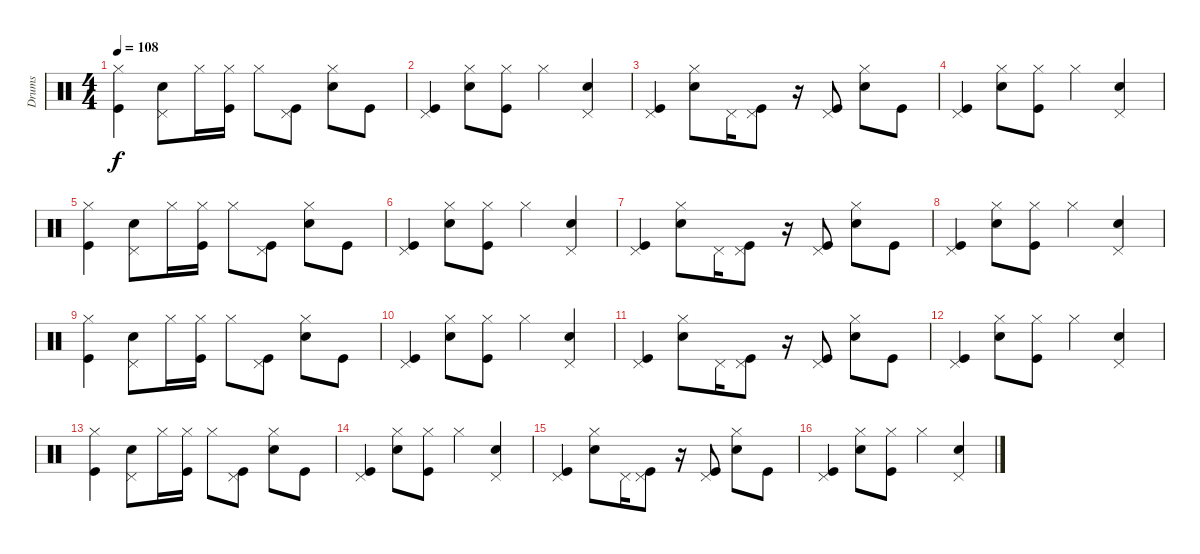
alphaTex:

\track ("Drums" "Drums") {instrument percussion}
\staff {score}
\articulation defaults
\ts (4 4)
\tempo 108
\clef neutral
\ks c
("Hi-Hat (closed)" "Kick (hit)").4{dy f} ("Pedal Hi-Hat (hit)" "Snare (hit) 2").8 "Hi-Hat (closed)".16 ("Hi-Hat (closed)" "Kick (hit)").16 "Hi-Hat (closed)".8 ("Pedal Hi-Hat (hit)" "Kick (hit)").8 ("Hi-Hat (closed)" "Snare (hit) 2").8 "Kick (hit)".8 |
("Pedal Hi-Hat (hit)" "Kick (hit)").4 ("Hi-Hat (closed)" "Snare (hit) 2").8 ("Hi-Hat (closed)" "Kick (hit)").8 "Hi-Hat (closed)".4 ("Pedal Hi-Hat (hit)" "Snare (hit) 2").4 |
("Pedal Hi-Hat (hit)" "Kick (hit)").4 ("Hi-Hat (closed)" "Snare (hit) 2").8 "Pedal Hi-Hat (hit)".16 ("Pedal Hi-Hat (hit)" "Kick (hit)").8 r.16 ("Pedal Hi-Hat (hit)" "Kick (hit)").8 ("Hi-Hat (closed)" "Snare (hit) 2").8 "Kick (hit)".8 |
("Pedal Hi-Hat (hit)" "Kick (hit)").4 ("Hi-Hat (closed)" "Snare (hit) 2").8 ("Hi-Hat (closed)" "Kick (hit)").8 "Hi-Hat (closed)".4 ("Pedal Hi-Hat (hit)" "Snare (hit) 2").4 |
("Hi-Hat (closed)" "Kick (hit)").4 ("Pedal Hi-Hat (hit)" "Snare (hit) 2").8 "Hi-Hat (closed)".16 ("Hi-Hat (closed)" "Kick (hit)").16 "Hi-Hat (closed)".8 ("Pedal Hi-Hat (hit)" "Kick (hit)").8 ("Hi-Hat (closed)" "Snare (hit) 2").8 "Kick (hit)".8 |
("Pedal Hi-Hat (hit)" "Kick (hit)").4 ("Hi-Hat (closed)" "Snare (hit) 2").8 ("Hi-Hat (closed)" "Kick (hit)").8 "Hi-Hat (closed)".4 ("Pedal Hi-Hat (hit)" "Snare (hit) 2").4 |
("Pedal Hi-Hat (hit)" "Kick (hit)").4 ("Hi-Hat (closed)" "Snare (hit) 2").8 "Pedal Hi-Hat (hit)".16 ("Pedal Hi-Hat (hit)" "Kick (hit)").8 r.16 ("Pedal Hi-Hat (hit)" "Kick (hit)").8 ("Hi-Hat (closed)" "Snare (hit) 2").8 "Kick (hit)".8 |
("Pedal Hi-Hat (hit)" "Kick (hit)").4 ("Hi-Hat (closed)" "Snare (hit) 2").8 ("Hi-Hat (closed)" "Kick (hit)").8 "Hi-Hat (closed)".4 ("Pedal Hi-Hat (hit)" "Snare (hit) 2").4 |
("Hi-Hat (closed)" "Kick (hit)").4 ("Pedal Hi-Hat (hit)" "Snare (hit) 2").8 "Hi-Hat (closed)".16 ("Hi-Hat (closed)" "Kick (hit)").16 "Hi-Hat (closed)".8 ("Pedal Hi-Hat (hit)" "Kick (hit)").8 ("Hi-Hat (closed)" "Snare (hit) 2").8 "Kick (hit)".8 |
("Pedal Hi-Hat (hit)" "Kick (hit)").4 ("Hi-Hat (closed)" "Snare (hit) 2").8 ("Hi-Hat (closed)" "Kick (hit)").8 "Hi-Hat (closed)".4 ("Pedal Hi-Hat (hit)" "Snare (hit) 2").4 |
("Pedal Hi-Hat (hit)" "Kick (hit)").4 ("Hi-Hat (closed)" "Snare (hit) 2").8 "Pedal Hi-Hat (hit)".16 ("Pedal Hi-Hat (hit)" "Kick (hit)").8 r.16 ("Pedal Hi-Hat (hit)" "Kick (hit)").8 ("Hi-Hat (closed)" "Snare (hit) 2").8 "Kick (hit)".8 |
("Pedal Hi-Hat (hit)" "Kick (hit)").4 ("Hi-Hat (closed)" "Snare (hit) 2").8 ("Hi-Hat (closed)" "Kick (hit)").8 "Hi-Hat (closed)".4 ("Pedal Hi-Hat (hit)" "Snare (hit) 2").4 |
("Hi-Hat (closed)" "Kick (hit)").4 ("Pedal Hi-Hat (hit)" "Snare (hit) 2").8 "Hi-Hat (closed)".16 ("Hi-Hat (closed)" "Kick (hit)").16 "Hi-Hat (closed)".8 ("Pedal Hi-Hat (hit)" "Kick (hit)").8 ("Hi-Hat (closed)" "Snare (hit) 2").8 "Kick (hit)".8 |
("Pedal Hi-Hat (hit)" "Kick (hit)").4 ("Hi-Hat (closed)" "Snare (hit) 2").8 ("Hi-Hat (closed)" "Kick (hit)").8 "Hi-Hat (closed)".4 ("Pedal Hi-Hat (hit)" "Snare (hit) 2").4 |
("Pedal Hi-Hat (hit)" "Kick (hit)").4 ("Hi-Hat (closed)" "Snare (hit) 2").8 "Pedal Hi-Hat (hit)".16 ("Pedal Hi-Hat (hit)" "Kick (hit)").8 r.16 ("Pedal Hi-Hat (hit)" "Kick (hit)").8 ("Hi-Hat (closed)" "Snare (hit) 2").8 "Kick (hit)".8 |
("Pedal Hi-Hat (hit)" "Kick (hit)").4 ("Hi-Hat (closed)" "Snare (hit) 2").8 ("Hi-Hat (closed)" "Kick (hit)").8 "Hi-Hat (closed)".4 ("Pedal Hi-Hat (hit)" "Snare (hit) 2").4
